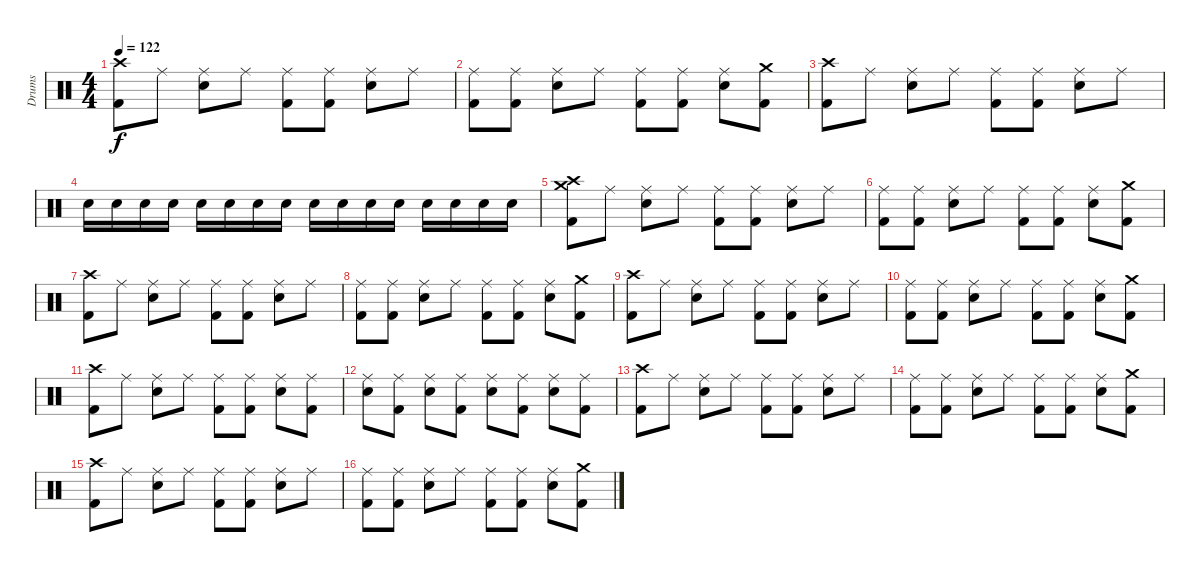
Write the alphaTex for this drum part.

\track ("Drums" "Drums") {instrument percussion}
\staff {score}
\articulation defaults
\ts (4 4)
\tempo 122
\clef neutral
\ks c
("Crash high (hit)" "Kick (hit) 2").8{dy f} "Ride (middle)".8 ("Ride (middle)" "Snare (hit) 2").8 "Ride (middle)".8 ("Ride (middle)" "Kick (hit) 2").8 ("Ride (middle)" "Kick (hit) 2").8 ("Ride (middle)" "Snare (hit) 2").8 "Ride (middle)".8 |
("Ride (middle)" "Kick (hit) 2").8 ("Ride (middle)" "Kick (hit) 2").8 ("Ride (middle)" "Snare (hit) 2").8 "Ride (middle)".8 ("Ride (middle)" "Kick (hit) 2").8 ("Ride (middle)" "Kick (hit) 2").8 ("Ride (middle)" "Snare (hit) 2").8 ("Crash medium (hit)" "Kick (hit) 2").8 |
("Crash high (hit)" "Kick (hit) 2").8 "Ride (middle)".8 ("Ride (middle)" "Snare (hit) 2").8 "Ride (middle)".8 ("Ride (middle)" "Kick (hit) 2").8 ("Ride (middle)" "Kick (hit) 2").8 ("Ride (middle)" "Snare (hit) 2").8 "Ride (middle)".8 |
"Snare (hit) 2".16 "Snare (hit) 2".16 "Snare (hit) 2".16 "Snare (hit) 2".16 "Snare (hit) 2".16 "Snare (hit) 2".16 "Snare (hit) 2".16 "Snare (hit) 2".16 "Snare (hit) 2".16 "Snare (hit) 2".16 "Snare (hit) 2".16 "Snare (hit) 2".16 "Snare (hit) 2".16 "Snare (hit) 2".16 "Snare (hit) 2".16 "Snare (hit) 2".16 |
("Crash high (hit)" "Crash medium (hit)" "Kick (hit) 2").8 "Ride (middle)".8 ("Ride (middle)" "Snare (hit) 2").8 "Ride (middle)".8 ("Ride (middle)" "Kick (hit) 2").8 ("Ride (middle)" "Kick (hit) 2").8 ("Ride (middle)" "Snare (hit) 2").8 "Ride (middle)".8 |
("Ride (middle)" "Kick (hit) 2").8 ("Ride (middle)" "Kick (hit) 2").8 ("Ride (middle)" "Snare (hit) 2").8 "Ride (middle)".8 ("Ride (middle)" "Kick (hit) 2").8 ("Ride (middle)" "Kick (hit) 2").8 ("Ride (middle)" "Snare (hit) 2").8 ("Crash medium (hit)" "Kick (hit) 2").8 |
("Crash high (hit)" "Kick (hit) 2").8 "Ride (middle)".8 ("Ride (middle)" "Snare (hit) 2").8 "Ride (middle)".8 ("Ride (middle)" "Kick (hit) 2").8 ("Ride (middle)" "Kick (hit) 2").8 ("Ride (middle)" "Snare (hit) 2").8 "Ride (middle)".8 |
("Ride (middle)" "Kick (hit) 2").8 ("Ride (middle)" "Kick (hit) 2").8 ("Ride (middle)" "Snare (hit) 2").8 "Ride (middle)".8 ("Ride (middle)" "Kick (hit) 2").8 ("Ride (middle)" "Kick (hit) 2").8 ("Ride (middle)" "Snare (hit) 2").8 ("Crash medium (hit)" "Kick (hit) 2").8 |
("Crash high (hit)" "Kick (hit) 2").8 "Ride (middle)".8 ("Ride (middle)" "Snare (hit) 2").8 "Ride (middle)".8 ("Ride (middle)" "Kick (hit) 2").8 ("Ride (middle)" "Kick (hit) 2").8 ("Ride (middle)" "Snare (hit) 2").8 "Ride (middle)".8 |
("Ride (middle)" "Kick (hit) 2").8 ("Ride (middle)" "Kick (hit) 2").8 ("Ride (middle)" "Snare (hit) 2").8 "Ride (middle)".8 ("Ride (middle)" "Kick (hit) 2").8{volume 8} ("Ride (middle)" "Kick (hit) 2").8 ("Ride (middle)" "Snare (hit) 2").8 ("Crash medium (hit)" "Kick (hit) 2").8 |
("Crash high (hit)" "Kick (hit) 2").8 "Ride (middle)".8 ("Ride (middle)" "Snare (hit) 2").8 "Ride (middle)".8 ("Ride (middle)" "Kick (hit) 2").8 ("Ride (middle)" "Kick (hit) 2").8 ("Ride (middle)" "Snare (hit) 2").8 ("Ride (middle)" "Kick (hit) 2").8 |
("Ride (middle)" "Snare (hit) 2").8 ("Ride (middle)" "Kick (hit) 2").8 ("Ride (middle)" "Snare (hit) 2").8 ("Ride (middle)" "Kick (hit) 2").8 ("Ride (middle)" "Snare (hit) 2").8 ("Ride (middle)" "Kick (hit) 2").8 ("Ride (middle)" "Snare (hit) 2").8 ("Ride (middle)" "Kick (hit) 2").8 |
("Crash high (hit)" "Kick (hit) 2").8 "Ride (middle)".8 ("Ride (middle)" "Snare (hit) 2").8 "Ride (middle)".8 ("Ride (middle)" "Kick (hit) 2").8 ("Ride (middle)" "Kick (hit) 2").8 ("Ride (middle)" "Snare (hit) 2").8 "Ride (middle)".8 |
("Ride (middle)" "Kick (hit) 2").8 ("Ride (middle)" "Kick (hit) 2").8 ("Ride (middle)" "Snare (hit) 2").8 "Ride (middle)".8 ("Ride (middle)" "Kick (hit) 2").8 ("Ride (middle)" "Kick (hit) 2").8 ("Ride (middle)" "Snare (hit) 2").8 ("Crash medium (hit)" "Kick (hit) 2").8 |
("Crash high (hit)" "Kick (hit) 2").8{volume 2} "Ride (middle)".8 ("Ride (middle)" "Snare (hit) 2").8 "Ride (middle)".8 ("Ride (middle)" "Kick (hit) 2").8 ("Ride (middle)" "Kick (hit) 2").8 ("Ride (middle)" "Snare (hit) 2").8 "Ride (middle)".8 |
("Ride (middle)" "Kick (hit) 2").8 ("Ride (middle)" "Kick (hit) 2").8 ("Ride (middle)" "Snare (hit) 2").8 "Ride (middle)".8 ("Ride (middle)" "Kick (hit) 2").8 ("Ride (middle)" "Kick (hit) 2").8 ("Ride (middle)" "Snare (hit) 2").8 ("Crash medium (hit)" "Kick (hit) 2").8
